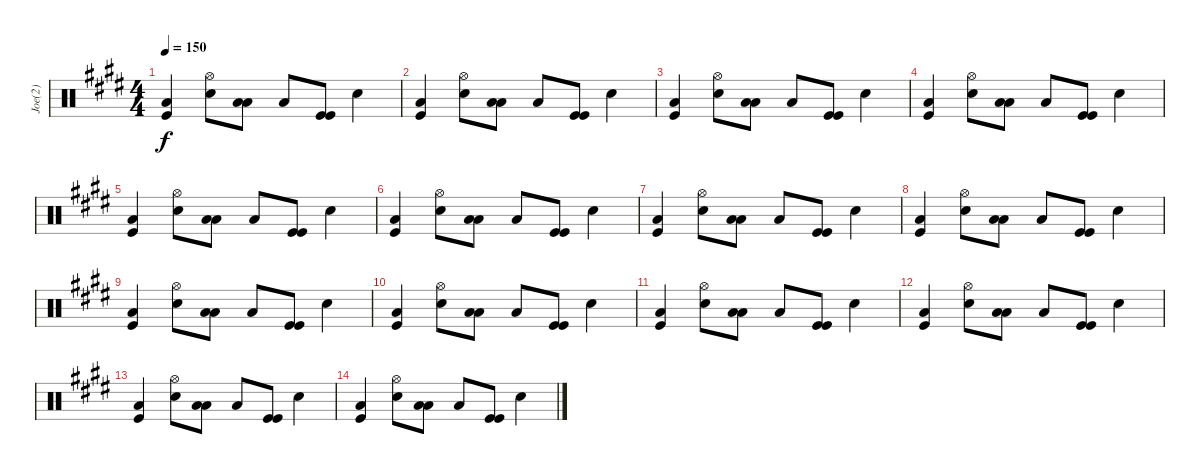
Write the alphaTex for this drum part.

\track ("Joe(2)" "Joe(2)") {instrument percussion}
\staff {score}
\articulation defaults
\ts (4 4)
\tempo 150
\clef neutral
\ks c#minor
("Kick (hit)" "Low Floor Tom (hit)").4{dy f} ("Snare (hit) 2" "Hi-Hat (open)").8 ("Low Tom (hit)" "Low Floor Tom (hit)").8 "Low Floor Tom (hit)".8 ("Kick (hit)" "Kick (hit)").8 "Snare (hit) 2".4 |
("Kick (hit)" "Low Floor Tom (hit)").4 ("Snare (hit) 2" "Hi-Hat (open)").8 ("Low Tom (hit)" "Low Floor Tom (hit)").8 "Low Floor Tom (hit)".8 ("Kick (hit)" "Kick (hit)").8 "Snare (hit) 2".4 |
("Kick (hit)" "Low Floor Tom (hit)").4 ("Snare (hit) 2" "Hi-Hat (open)").8 ("Low Tom (hit)" "Low Floor Tom (hit)").8 "Low Floor Tom (hit)".8 ("Kick (hit)" "Kick (hit)").8 "Snare (hit) 2".4 |
("Kick (hit)" "Low Floor Tom (hit)").4 ("Snare (hit) 2" "Hi-Hat (open)").8 ("Low Tom (hit)" "Low Floor Tom (hit)").8 "Low Floor Tom (hit)".8 ("Kick (hit)" "Kick (hit)").8 "Snare (hit) 2".4 |
("Kick (hit)" "Low Floor Tom (hit)").4 ("Snare (hit) 2" "Hi-Hat (open)").8 ("Low Tom (hit)" "Low Floor Tom (hit)").8 "Low Floor Tom (hit)".8 ("Kick (hit)" "Kick (hit)").8 "Snare (hit) 2".4 |
("Kick (hit)" "Low Floor Tom (hit)").4 ("Snare (hit) 2" "Hi-Hat (open)").8 ("Low Tom (hit)" "Low Floor Tom (hit)").8 "Low Floor Tom (hit)".8 ("Kick (hit)" "Kick (hit)").8 "Snare (hit) 2".4 |
("Kick (hit)" "Low Floor Tom (hit)").4 ("Snare (hit) 2" "Hi-Hat (open)").8 ("Low Tom (hit)" "Low Floor Tom (hit)").8 "Low Floor Tom (hit)".8 ("Kick (hit)" "Kick (hit)").8 "Snare (hit) 2".4 |
("Kick (hit)" "Low Floor Tom (hit)").4 ("Snare (hit) 2" "Hi-Hat (open)").8 ("Low Tom (hit)" "Low Floor Tom (hit)").8 "Low Floor Tom (hit)".8 ("Kick (hit)" "Kick (hit)").8 "Snare (hit) 2".4 |
("Kick (hit)" "Low Floor Tom (hit)").4 ("Snare (hit) 2" "Hi-Hat (open)").8 ("Low Tom (hit)" "Low Floor Tom (hit)").8 "Low Floor Tom (hit)".8 ("Kick (hit)" "Kick (hit)").8 "Snare (hit) 2".4 |
("Kick (hit)" "Low Floor Tom (hit)").4 ("Snare (hit) 2" "Hi-Hat (open)").8 ("Low Tom (hit)" "Low Floor Tom (hit)").8 "Low Floor Tom (hit)".8 ("Kick (hit)" "Kick (hit)").8 "Snare (hit) 2".4 |
("Kick (hit)" "Low Floor Tom (hit)").4 ("Snare (hit) 2" "Hi-Hat (open)").8 ("Low Tom (hit)" "Low Floor Tom (hit)").8 "Low Floor Tom (hit)".8 ("Kick (hit)" "Kick (hit)").8 "Snare (hit) 2".4 |
("Kick (hit)" "Low Floor Tom (hit)").4 ("Snare (hit) 2" "Hi-Hat (open)").8 ("Low Tom (hit)" "Low Floor Tom (hit)").8 "Low Floor Tom (hit)".8 ("Kick (hit)" "Kick (hit)").8 "Snare (hit) 2".4 |
("Kick (hit)" "Low Floor Tom (hit)").4 ("Snare (hit) 2" "Hi-Hat (open)").8 ("Low Tom (hit)" "Low Floor Tom (hit)").8 "Low Floor Tom (hit)".8 ("Kick (hit)" "Kick (hit)").8 "Snare (hit) 2".4 |
("Kick (hit)" "Low Floor Tom (hit)").4 ("Snare (hit) 2" "Hi-Hat (open)").8 ("Low Tom (hit)" "Low Floor Tom (hit)").8 "Low Floor Tom (hit)".8 ("Kick (hit)" "Kick (hit)").8 "Snare (hit) 2".4
